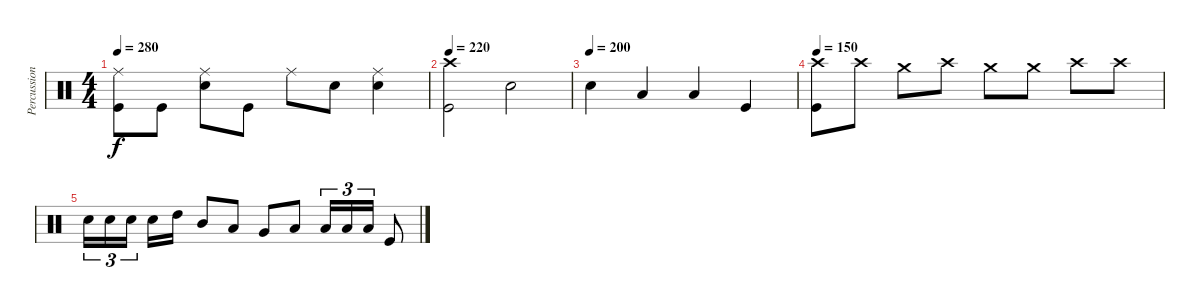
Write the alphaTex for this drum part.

\track ("Percussion" "Percussion") {instrument percussion}
\staff {score}
\articulation defaults
\ts (4 4)
\tempo 280
\clef neutral
\ks c
("Kick (hit)" "Ride (middle)").8{dy f} "Kick (hit)".8 ("Snare (hit) 2" "Ride (middle)").8 "Kick (hit)".8 "Ride (middle)".8 "Snare (hit) 2".8 ("Snare (hit) 2" "Ride (middle)").4 |
\tempo 220
("Kick (hit)" "Crash high (hit)").2 "Snare (hit) 2".2 |
\tempo (200)
"Snare (hit) 2".4 "Low Tom (hit)".4 "Low Floor Tom (hit)".4 "Kick (hit)".4 |
\tempo 150
("Kick (hit)" "Crash high (hit)").8 "Crash high (hit)".8 "Crash medium (hit)".8 "Crash high (hit)".8 "Crash medium (hit)".8 "Crash medium (hit)".8 "Crash high (hit)".8 "Crash high (hit)".8 |
"Electric Snare (hit)".16{tu (3 2)} "Electric Snare (hit)".16{tu (3 2)} "Electric Snare (hit)".16{tu (3 2) beam splitsecondary} "Electric Snare (hit)".16 "High Tom (hit)".16 "Mid Tom (hit)".8 "Low Tom (hit)".8 "Very Low Tom (hit)".8 "Low Floor Tom (hit)".8 "Low Floor Tom (hit)".16{tu (3 2)} "Low Floor Tom (hit)".16{tu (3 2)} "Low Floor Tom (hit)".16{tu (3 2)} "Kick (hit)".8
